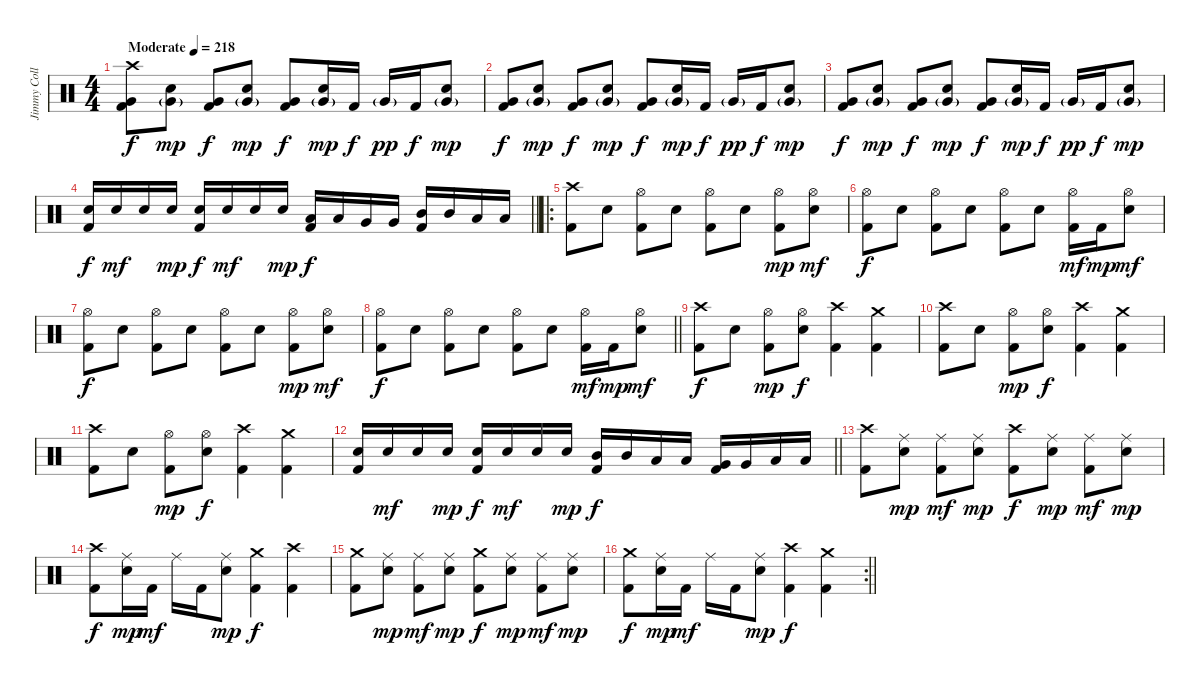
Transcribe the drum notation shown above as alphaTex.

\track ("Jimmy Colletti" "Jimmy Coll") {instrument percussion}
\staff {score}
\articulation defaults
\ts (4 4)
\tempo (218 "Moderate")
\clef neutral
\ks c
("Crash high (hit)" "Very Low Tom (hit)" "Kick (hit) 2").8{dy f} ("Electric Snare (hit)" "Very Low Tom (hit)"{g}).8{dy mp} ("Very Low Tom (hit)" "Kick (hit) 2").8{dy f} ("Electric Snare (hit)" "Very Low Tom (hit)"{g}).8{dy mp} ("Very Low Tom (hit)" "Kick (hit) 2").8{dy f} ("Electric Snare (hit)" "Very Low Tom (hit)"{g}).16{dy mp} "Kick (hit) 2".16{dy f} "Very Low Tom (hit)"{g}.16{dy pp} "Kick (hit) 2".16{dy f} ("Electric Snare (hit)" "Very Low Tom (hit)"{g}).8{dy mp} |
("Very Low Tom (hit)" "Kick (hit) 2").8{dy f} ("Electric Snare (hit)" "Very Low Tom (hit)"{g}).8{dy mp} ("Very Low Tom (hit)" "Kick (hit) 2").8{dy f} ("Electric Snare (hit)" "Very Low Tom (hit)"{g}).8{dy mp} ("Very Low Tom (hit)" "Kick (hit) 2").8{dy f} ("Electric Snare (hit)" "Very Low Tom (hit)"{g}).16{dy mp} "Kick (hit) 2".16{dy f} "Very Low Tom (hit)"{g}.16{dy pp} "Kick (hit) 2".16{dy f} ("Electric Snare (hit)" "Very Low Tom (hit)"{g}).8{dy mp} |
("Very Low Tom (hit)" "Kick (hit) 2").8{dy f} ("Electric Snare (hit)" "Very Low Tom (hit)"{g}).8{dy mp} ("Very Low Tom (hit)" "Kick (hit) 2").8{dy f} ("Electric Snare (hit)" "Very Low Tom (hit)"{g}).8{dy mp} ("Very Low Tom (hit)" "Kick (hit) 2").8{dy f} ("Electric Snare (hit)" "Very Low Tom (hit)"{g}).16{dy mp} "Kick (hit) 2".16{dy f} "Very Low Tom (hit)"{g}.16{dy pp} "Kick (hit) 2".16{dy f} ("Electric Snare (hit)" "Very Low Tom (hit)"{g}).8{dy mp} |
\barLineRight lightlight
("Electric Snare (hit)" "Kick (hit) 2").16{dy f} "Electric Snare (hit)".16{dy mf} "Electric Snare (hit)".16 "Electric Snare (hit)".16{dy mp} ("Electric Snare (hit)" "Kick (hit) 2").16{dy f} "Electric Snare (hit)".16{dy mf} "Electric Snare (hit)".16 "Electric Snare (hit)".16{dy mp} ("Low Tom (hit)" "Kick (hit) 2").16{dy f} "Low Tom (hit)".16 "Very Low Tom (hit)".16 "Very Low Tom (hit)".16 ("Mid Tom (hit)" "Kick (hit) 2").16 "Mid Tom (hit)".16 "Low Tom (hit)".16 "Low Tom (hit)".16 |
\ro
\section ("" "")
("Crash high (hit)" "Kick (hit) 2").8 "Electric Snare (hit)".8 ("Hi-Hat (open)" "Kick (hit) 2").8 "Electric Snare (hit)".8 ("Hi-Hat (open)" "Kick (hit) 2").8 "Electric Snare (hit)".8 ("Hi-Hat (open)" "Kick (hit) 2").8{dy mp} ("Hi-Hat (open)" "Electric Snare (hit)").8{dy mf} |
("Hi-Hat (open)" "Kick (hit) 2").8{dy f} "Electric Snare (hit)".8 ("Hi-Hat (open)" "Kick (hit) 2").8 "Electric Snare (hit)".8 ("Hi-Hat (open)" "Kick (hit) 2").8 "Electric Snare (hit)".8 ("Hi-Hat (open)" "Kick (hit) 2").16{dy mf} "Kick (hit) 2".16{dy mp} ("Hi-Hat (open)" "Electric Snare (hit)").8{dy mf} |
("Hi-Hat (open)" "Kick (hit) 2").8{dy f} "Electric Snare (hit)".8 ("Hi-Hat (open)" "Kick (hit) 2").8 "Electric Snare (hit)".8 ("Hi-Hat (open)" "Kick (hit) 2").8 "Electric Snare (hit)".8 ("Hi-Hat (open)" "Kick (hit) 2").8{dy mp} ("Hi-Hat (open)" "Electric Snare (hit)").8{dy mf} |
\barLineRight lightlight
("Hi-Hat (open)" "Kick (hit) 2").8{dy f} "Electric Snare (hit)".8 ("Hi-Hat (open)" "Kick (hit) 2").8 "Electric Snare (hit)".8 ("Hi-Hat (open)" "Kick (hit) 2").8 "Electric Snare (hit)".8 ("Hi-Hat (open)" "Kick (hit) 2").16{dy mf} "Kick (hit) 2".16{dy mp} ("Hi-Hat (open)" "Electric Snare (hit)").8{dy mf} |
\section ("" "")
("Crash high (hit)" "Kick (hit) 2").8{dy f} "Electric Snare (hit)".8 ("Hi-Hat (open)" "Kick (hit) 2").8{dy mp} ("Hi-Hat (open)" "Electric Snare (hit)").8{dy f} ("Crash high (hit)" "Kick (hit) 2").4 ("Crash medium (hit)" "Kick (hit) 2").4 |
("Crash high (hit)" "Kick (hit) 2").8 "Electric Snare (hit)".8 ("Hi-Hat (open)" "Kick (hit) 2").8{dy mp} ("Hi-Hat (open)" "Electric Snare (hit)").8{dy f} ("Crash high (hit)" "Kick (hit) 2").4 ("Crash medium (hit)" "Kick (hit) 2").4 |
("Crash high (hit)" "Kick (hit) 2").8 "Electric Snare (hit)".8 ("Hi-Hat (open)" "Kick (hit) 2").8{dy mp} ("Hi-Hat (open)" "Electric Snare (hit)").8{dy f} ("Crash high (hit)" "Kick (hit) 2").4 ("Crash medium (hit)" "Kick (hit) 2").4 |
\barLineRight lightlight
("Electric Snare (hit)" "Kick (hit) 2").16 "Electric Snare (hit)".16{dy mf} "Electric Snare (hit)".16 "Electric Snare (hit)".16{dy mp} ("Electric Snare (hit)" "Kick (hit) 2").16{dy f} "Electric Snare (hit)".16{dy mf} "Electric Snare (hit)".16 "Electric Snare (hit)".16{dy mp} ("Mid Tom (hit)" "Kick (hit) 2").16{dy f} "Mid Tom (hit)".16 "Low Tom (hit)".16 "Low Tom (hit)".16 ("Very Low Tom (hit)" "Kick (hit) 2").16 "Very Low Tom (hit)".16 "Low Floor Tom (hit)".16 "Low Floor Tom (hit)".16 |
\section ("" "")
("Crash high (hit)" "Kick (hit) 2").8 ("Ride (middle)" "Electric Snare (hit)").8{dy mp} ("Ride (middle)" "Kick (hit) 2").8{dy mf} ("Ride (middle)" "Electric Snare (hit)").8{dy mp} ("Crash high (hit)" "Kick (hit) 2").8{dy f} ("Ride (middle)" "Electric Snare (hit)").8{dy mp} ("Ride (middle)" "Kick (hit) 2").8{dy mf} ("Ride (middle)" "Electric Snare (hit)").8{dy mp} |
("Crash high (hit)" "Kick (hit) 2").8{dy f} ("Ride (middle)" "Electric Snare (hit)").16{dy mp} "Kick (hit) 2".16{dy mf} "Ride (middle)".16 "Kick (hit) 2".16 ("Ride (middle)" "Electric Snare (hit)").8{dy mp} ("Crash medium (hit)" "Kick (hit) 2").4{dy f} ("Crash high (hit)" "Kick (hit) 2").4 |
("Crash medium (hit)" "Kick (hit) 2").8 ("Ride (middle)" "Electric Snare (hit)").8{dy mp} ("Ride (middle)" "Kick (hit) 2").8{dy mf} ("Ride (middle)" "Electric Snare (hit)").8{dy mp} ("Crash medium (hit)" "Kick (hit) 2").8{dy f} ("Ride (middle)" "Electric Snare (hit)").8{dy mp} ("Ride (middle)" "Kick (hit) 2").8{dy mf} ("Ride (middle)" "Electric Snare (hit)").8{dy mp} |
\rc 2
\barLineRight lightlight
("Crash medium (hit)" "Kick (hit) 2").8{dy f} ("Ride (middle)" "Electric Snare (hit)").16{dy mp} "Kick (hit) 2".16{dy mf} "Ride (middle)".16 "Kick (hit) 2".16 ("Ride (middle)" "Electric Snare (hit)").8{dy mp} ("Crash high (hit)" "Kick (hit) 2").4{dy f} ("Crash medium (hit)" "Kick (hit) 2").4
